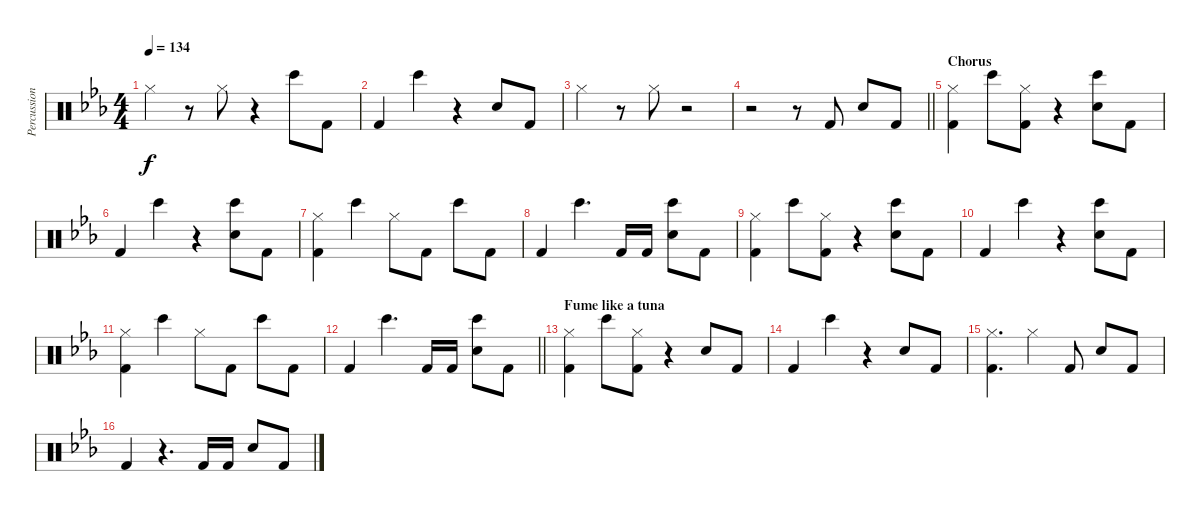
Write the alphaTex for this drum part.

\track ("Percussion" "Percussion") {instrument percussion}
\staff {score}
\articulation defaults
\ts (4 4)
\tempo 134
\clef neutral
\ks eb "Hi-Hat (closed)".4{dy f}
r.8 "Hi-Hat (closed)".8 r.4 "Bongo High (hit)".8 "Kick (hit) 2".8 |
"Kick (hit) 2".4 "Bongo High (hit)".4 r.4 "Hand Clap (hit)".8 "Kick (hit) 2".8 |
"Hi-Hat (closed)".4 r.8 "Hi-Hat (closed)".8 r.2 |
\barLineRight lightlight
r.2 r.8 "Kick (hit) 2".8 "Hand Clap (hit)".8 "Kick (hit) 2".8 |
\section ("" "Chorus")
("Hi-Hat (closed)" "Kick (hit) 2").4 "Bongo High (hit)".8 ("Hi-Hat (closed)" "Kick (hit) 2").8 r.4 ("Hand Clap (hit)" "Bongo High (hit)").8 "Kick (hit) 2".8 |
"Kick (hit) 2".4 "Bongo High (hit)".4 r.4 ("Hand Clap (hit)" "Bongo High (hit)").8 "Kick (hit) 2".8 |
("Hi-Hat (closed)" "Kick (hit) 2").4 "Bongo High (hit)".4 "Hi-Hat (closed)".8 "Kick (hit) 2".8 "Bongo High (hit)".8 "Kick (hit) 2".8 |
"Kick (hit) 2".4 "Bongo High (hit)".4{d} "Kick (hit) 2".16 "Kick (hit) 2".16 ("Hand Clap (hit)" "Bongo High (hit)").8 "Kick (hit) 2".8 |
("Hi-Hat (closed)" "Kick (hit) 2").4 "Bongo High (hit)".8 ("Hi-Hat (closed)" "Kick (hit) 2").8 r.4 ("Hand Clap (hit)" "Bongo High (hit)").8 "Kick (hit) 2".8 |
"Kick (hit) 2".4 "Bongo High (hit)".4 r.4 ("Hand Clap (hit)" "Bongo High (hit)").8 "Kick (hit) 2".8 |
("Hi-Hat (closed)" "Kick (hit) 2").4 "Bongo High (hit)".4 "Hi-Hat (closed)".8 "Kick (hit) 2".8 "Bongo High (hit)".8 "Kick (hit) 2".8 |
\barLineRight lightlight "Kick (hit) 2".4 "Bongo High (hit)".4{d} "Kick (hit) 2".16 "Kick (hit) 2".16
("Hand Clap (hit)" "Bongo High (hit)").8 "Kick (hit) 2".8 |
\section ("" "Fume like a tuna")
("Hi-Hat (closed)" "Kick (hit) 2").4 "Bongo High (hit)".8 ("Hi-Hat (closed)" "Kick (hit) 2").8 r.4 "Hand Clap (hit)".8 "Kick (hit) 2".8 |
"Kick (hit) 2".4 "Bongo High (hit)".4 r.4 "Hand Clap (hit)".8 "Kick (hit) 2".8 |
("Hi-Hat (closed)" "Kick (hit) 2").4{d} "Hi-Hat (closed)".4 "Kick (hit) 2".8 "Hand Clap (hit)".8 "Kick (hit) 2".8 |
"Kick (hit) 2".4 r.4{d} "Kick (hit) 2".16 "Kick (hit) 2".16 "Hand Clap (hit)".8 "Kick (hit) 2".8
